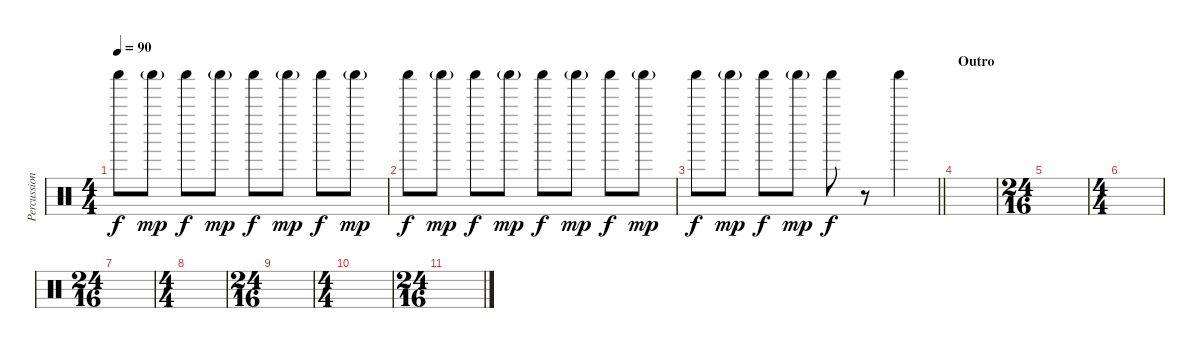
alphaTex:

\track ("Percussion 2" "Percussion") {instrument percussion}
\staff {score}
\articulation defaults
\ts (4 4)
\tempo 90
\clef neutral
\ks c "Shaker (hit)".8{dy f} "Shaker (hit)"{g}.8{dy mp} "Shaker (hit)".8{dy f} "Shaker (hit)"{g}.8{dy mp} "Shaker (hit)".8{dy f} "Shaker (hit)"{g}.8{dy mp} "Shaker (hit)".8{dy f} "Shaker (hit)"{g}.8{dy mp}
|
"Shaker (hit)".8{dy f} "Shaker (hit)"{g}.8{dy mp} "Shaker (hit)".8{dy f} "Shaker (hit)"{g}.8{dy mp} "Shaker (hit)".8{dy f} "Shaker (hit)"{g}.8{dy mp} "Shaker (hit)".8{dy f} "Shaker (hit)"{g}.8{dy mp} |
\barLineRight lightlight "Shaker (hit)".8{dy f} "Shaker (hit)"{g}.8{dy mp} "Shaker (hit)".8{dy f} "Shaker (hit)"{g}.8{dy mp} "Shaker (hit)".8{dy f}
r.8 "Shaker (hit)".4 |
\section ("" "Outro")
|
\ts (24 16)
|
\ts (4 4)
|
\ts (24 16)
|
\ts (4 4)
|
\ts (24 16)
|
\ts (4 4)
|
\ts (24 16)
